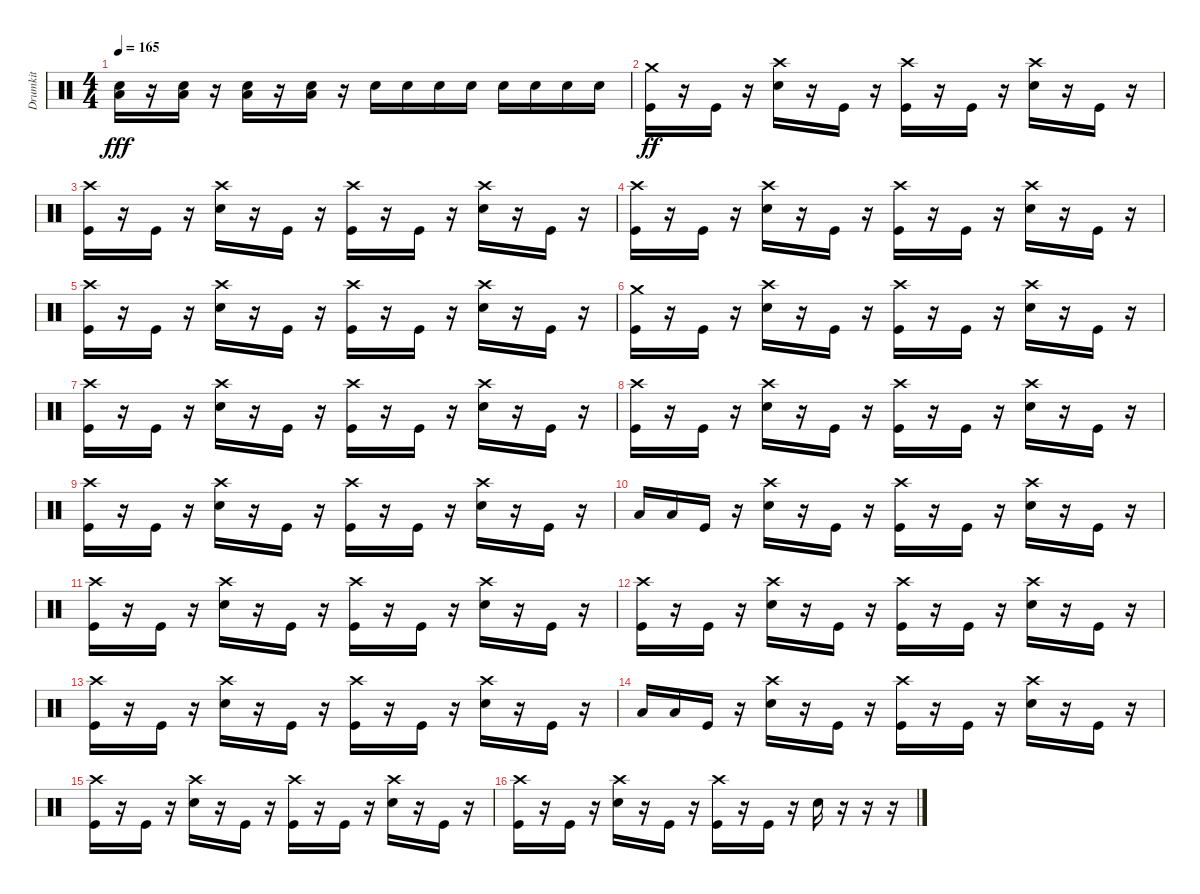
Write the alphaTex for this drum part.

\track ("Drumkit" "Drumkit") {instrument percussion}
\staff {score}
\articulation defaults
\ts (4 4)
\tempo 165
\clef neutral
\ks c
("Low Floor Tom (hit)" "Snare (hit) 2").16{dy fff} r.16 ("Low Floor Tom (hit)" "Snare (hit) 2").16 r.16 ("Low Floor Tom (hit)" "Snare (hit) 2").16 r.16 ("Low Floor Tom (hit)" "Snare (hit) 2").16 r.16 "Snare (hit) 2".16 "Snare (hit) 2".16 "Snare (hit) 2".16 "Snare (hit) 2".16 "Snare (hit) 2".16 "Snare (hit) 2".16 "Snare (hit) 2".16 "Snare (hit) 2".16 |
("Crash medium (hit)" "Kick (hit)").16{dy ff} r.16 "Kick (hit)".16 r.16 ("Crash high (hit)" "Snare (hit) 2").16 r.16 "Kick (hit)".16 r.16 ("Crash high (hit)" "Kick (hit)").16 r.16 "Kick (hit)".16 r.16 ("Crash high (hit)" "Snare (hit) 2").16 r.16 "Kick (hit)".16 r.16 |
("Crash high (hit)" "Kick (hit)").16 r.16 "Kick (hit)".16 r.16 ("Crash high (hit)" "Snare (hit) 2").16 r.16 "Kick (hit)".16 r.16 ("Crash high (hit)" "Kick (hit)").16 r.16 "Kick (hit)".16 r.16 ("Crash high (hit)" "Snare (hit) 2").16 r.16 "Kick (hit)".16 r.16 |
("Crash high (hit)" "Kick (hit)").16 r.16 "Kick (hit)".16 r.16 ("Crash high (hit)" "Snare (hit) 2").16 r.16 "Kick (hit)".16 r.16 ("Crash high (hit)" "Kick (hit)").16 r.16 "Kick (hit)".16 r.16 ("Crash high (hit)" "Snare (hit) 2").16 r.16 "Kick (hit)".16 r.16 |
("Crash high (hit)" "Kick (hit)").16 r.16 "Kick (hit)".16 r.16 ("Crash high (hit)" "Snare (hit) 2").16 r.16 "Kick (hit)".16 r.16 ("Crash high (hit)" "Kick (hit)").16 r.16 "Kick (hit)".16 r.16 ("Crash high (hit)" "Snare (hit) 2").16 r.16 "Kick (hit)".16 r.16 |
("Crash medium (hit)" "Kick (hit)").16 r.16 "Kick (hit)".16 r.16 ("Crash high (hit)" "Snare (hit) 2").16 r.16 "Kick (hit)".16 r.16 ("Crash high (hit)" "Kick (hit)").16 r.16 "Kick (hit)".16 r.16 ("Crash high (hit)" "Snare (hit) 2").16 r.16 "Kick (hit)".16 r.16 |
("Crash high (hit)" "Kick (hit)").16 r.16 "Kick (hit)".16 r.16 ("Crash high (hit)" "Snare (hit) 2").16 r.16 "Kick (hit)".16 r.16 ("Crash high (hit)" "Kick (hit)").16 r.16 "Kick (hit)".16 r.16 ("Crash high (hit)" "Snare (hit) 2").16 r.16 "Kick (hit)".16 r.16 |
("Crash high (hit)" "Kick (hit)").16 r.16 "Kick (hit)".16 r.16 ("Crash high (hit)" "Snare (hit) 2").16 r.16 "Kick (hit)".16 r.16 ("Crash high (hit)" "Kick (hit)").16 r.16 "Kick (hit)".16 r.16 ("Crash high (hit)" "Snare (hit) 2").16 r.16 "Kick (hit)".16 r.16 |
("Crash high (hit)" "Kick (hit)").16 r.16 "Kick (hit)".16 r.16 ("Crash high (hit)" "Snare (hit) 2").16 r.16 "Kick (hit)".16 r.16 ("Crash high (hit)" "Kick (hit)").16 r.16 "Kick (hit)".16 r.16 ("Crash high (hit)" "Snare (hit) 2").16 r.16 "Kick (hit)".16 r.16 |
"Low Tom (hit)".16 "Low Floor Tom (hit)".16 "Kick (hit)".16 r.16 ("Crash high (hit)" "Snare (hit) 2").16 r.16 "Kick (hit)".16 r.16 ("Crash high (hit)" "Kick (hit)").16 r.16 "Kick (hit)".16 r.16 ("Crash high (hit)" "Snare (hit) 2").16 r.16 "Kick (hit)".16 r.16 |
("Crash high (hit)" "Kick (hit)").16 r.16 "Kick (hit)".16 r.16 ("Crash high (hit)" "Snare (hit) 2").16 r.16 "Kick (hit)".16 r.16 ("Crash high (hit)" "Kick (hit)").16 r.16 "Kick (hit)".16 r.16 ("Crash high (hit)" "Snare (hit) 2").16 r.16 "Kick (hit)".16 r.16 |
("Crash high (hit)" "Kick (hit)").16 r.16 "Kick (hit)".16 r.16 ("Crash high (hit)" "Snare (hit) 2").16 r.16 "Kick (hit)".16 r.16 ("Crash high (hit)" "Kick (hit)").16 r.16 "Kick (hit)".16 r.16 ("Crash high (hit)" "Snare (hit) 2").16 r.16 "Kick (hit)".16 r.16 |
("Crash high (hit)" "Kick (hit)").16 r.16 "Kick (hit)".16 r.16 ("Crash high (hit)" "Snare (hit) 2").16 r.16 "Kick (hit)".16 r.16 ("Crash high (hit)" "Kick (hit)").16 r.16 "Kick (hit)".16 r.16 ("Crash high (hit)" "Snare (hit) 2").16 r.16 "Kick (hit)".16 r.16 |
"Low Tom (hit)".16 "Low Floor Tom (hit)".16 "Kick (hit)".16 r.16 ("Crash high (hit)" "Snare (hit) 2").16 r.16 "Kick (hit)".16 r.16 ("Crash high (hit)" "Kick (hit)").16 r.16 "Kick (hit)".16 r.16 ("Crash high (hit)" "Snare (hit) 2").16 r.16 "Kick (hit)".16 r.16 |
("Crash high (hit)" "Kick (hit)").16 r.16 "Kick (hit)".16 r.16 ("Crash high (hit)" "Snare (hit) 2").16 r.16 "Kick (hit)".16 r.16 ("Crash high (hit)" "Kick (hit)").16 r.16 "Kick (hit)".16 r.16 ("Crash high (hit)" "Snare (hit) 2").16 r.16 "Kick (hit)".16 r.16 |
("Crash high (hit)" "Kick (hit)").16 r.16 "Kick (hit)".16 r.16 ("Crash high (hit)" "Snare (hit) 2").16 r.16 "Kick (hit)".16 r.16 ("Crash high (hit)" "Kick (hit)").16 r.16 "Kick (hit)".16 r.16 "Snare (hit) 2".16 r.16 r.16 r.16
